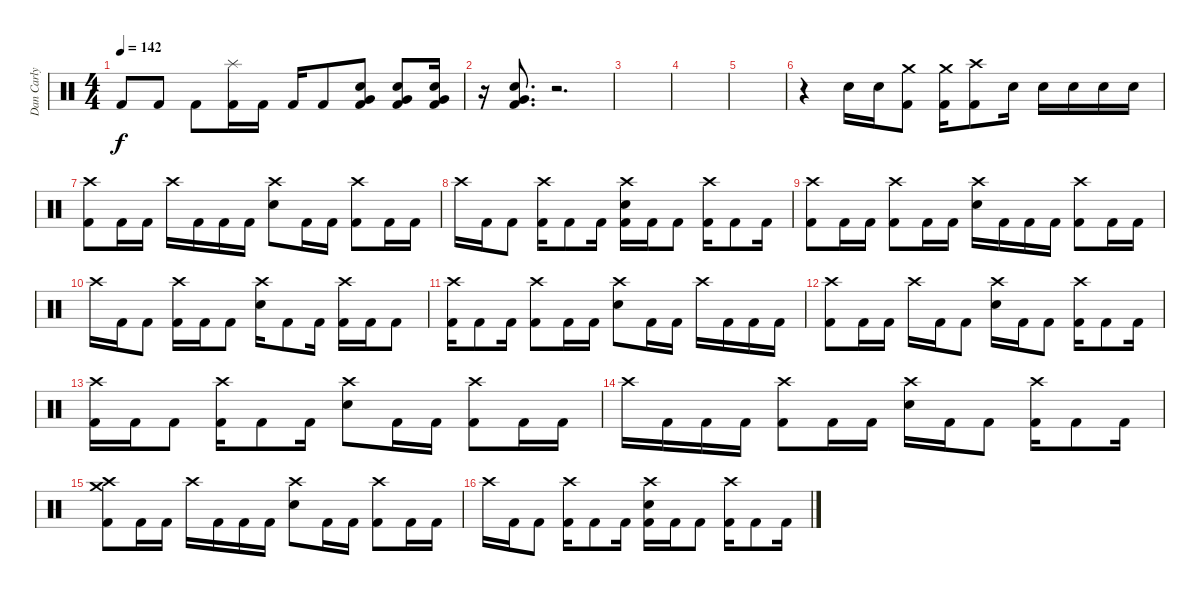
\track ("Dan Carly" "Dan Carly") {instrument percussion}
\staff {score}
\articulation defaults
\ts (4 4)
\tempo 142
\clef neutral
\ks c "Kick (hit) 2".8{dy f} "Kick (hit) 2".8 "Kick (hit) 2".8
("Splash (hit)" "Kick (hit) 2").16 "Kick (hit) 2".16 "Kick (hit) 2".16 "Kick (hit) 2".8 ("Electric Snare (hit)" "Very Low Tom (hit)" "Kick (hit) 2").8 ("Electric Snare (hit)" "Very Low Tom (hit)" "Kick (hit) 2").8 ("Electric Snare (hit)" "Very Low Tom (hit)" "Kick (hit) 2").16 |
r.16 ("Electric Snare (hit)" "Very Low Tom (hit)" "Kick (hit) 2").8{d} r.2{d} |
|
|
|
r.4 "Electric Snare (hit)".16 "Electric Snare (hit)".16 ("Crash medium (hit)" "Kick (hit) 2").8 ("Crash medium (hit)" "Kick (hit) 2").16 ("Crash high (hit)" "Kick (hit) 2").8 "Electric Snare (hit)".16 "Electric Snare (hit)".16 "Electric Snare (hit)".16 "Electric Snare (hit)".16 "Electric Snare (hit)".16 |
("Crash high (hit)" "Kick (hit) 2").8 "Kick (hit) 2".16 "Kick (hit) 2".16 "Crash high (hit)".16 "Kick (hit) 2".16 "Kick (hit) 2".16 "Kick (hit) 2".16 ("Crash high (hit)" "Electric Snare (hit)").8 "Kick (hit) 2".16 "Kick (hit) 2".16 ("Crash high (hit)" "Kick (hit) 2").8 "Kick (hit) 2".16 "Kick (hit) 2".16 |
"Crash high (hit)".16 "Kick (hit) 2".16 "Kick (hit) 2".8 ("Crash high (hit)" "Kick (hit) 2").16 "Kick (hit) 2".8 "Kick (hit) 2".16 ("Crash high (hit)" "Electric Snare (hit)" "Kick (hit) 2").16 "Kick (hit) 2".16 "Kick (hit) 2".8 ("Crash high (hit)" "Kick (hit) 2").16 "Kick (hit) 2".8 "Kick (hit) 2".16 |
("Crash high (hit)" "Kick (hit) 2").8 "Kick (hit) 2".16 "Kick (hit) 2".16 ("Crash high (hit)" "Kick (hit) 2").8 "Kick (hit) 2".16 "Kick (hit) 2".16 ("Crash high (hit)" "Electric Snare (hit)").16 "Kick (hit) 2".16 "Kick (hit) 2".16 "Kick (hit) 2".16 ("Crash high (hit)" "Kick (hit) 2").8 "Kick (hit) 2".16 "Kick (hit) 2".16 |
"Crash high (hit)".16 "Kick (hit) 2".16 "Kick (hit) 2".8 ("Crash high (hit)" "Kick (hit) 2").16 "Kick (hit) 2".16 "Kick (hit) 2".8 ("Crash high (hit)" "Electric Snare (hit)").16 "Kick (hit) 2".8 "Kick (hit) 2".16 ("Crash high (hit)" "Kick (hit) 2").16 "Kick (hit) 2".16 "Kick (hit) 2".8 |
("Crash high (hit)" "Kick (hit) 2").16 "Kick (hit) 2".8 "Kick (hit) 2".16 ("Crash high (hit)" "Kick (hit) 2").8 "Kick (hit) 2".16 "Kick (hit) 2".16 ("Crash high (hit)" "Electric Snare (hit)").8 "Kick (hit) 2".16 "Kick (hit) 2".16 "Crash high (hit)".16 "Kick (hit) 2".16 "Kick (hit) 2".16 "Kick (hit) 2".16 |
("Crash high (hit)" "Kick (hit) 2").8 "Kick (hit) 2".16 "Kick (hit) 2".16 "Crash high (hit)".16 "Kick (hit) 2".16 "Kick (hit) 2".8 ("Crash high (hit)" "Electric Snare (hit)").16 "Kick (hit) 2".16 "Kick (hit) 2".8 ("Crash high (hit)" "Kick (hit) 2").16 "Kick (hit) 2".8 "Kick (hit) 2".16 |
("Crash high (hit)" "Kick (hit) 2").16 "Kick (hit) 2".16 "Kick (hit) 2".8 ("Crash high (hit)" "Kick (hit) 2").16 "Kick (hit) 2".8 "Kick (hit) 2".16 ("Crash high (hit)" "Electric Snare (hit)").8 "Kick (hit) 2".16 "Kick (hit) 2".16 ("Crash high (hit)" "Kick (hit) 2").8 "Kick (hit) 2".16 "Kick (hit) 2".16 |
"Crash high (hit)".16 "Kick (hit) 2".16 "Kick (hit) 2".16 "Kick (hit) 2".16 ("Crash high (hit)" "Kick (hit) 2").8 "Kick (hit) 2".16 "Kick (hit) 2".16 ("Crash high (hit)" "Electric Snare (hit)").16 "Kick (hit) 2".16 "Kick (hit) 2".8 ("Crash high (hit)" "Kick (hit) 2").16 "Kick (hit) 2".8 "Kick (hit) 2".16 |
("Crash high (hit)" "Crash medium (hit)" "Kick (hit) 2").8 "Kick (hit) 2".16 "Kick (hit) 2".16 "Crash high (hit)".16 "Kick (hit) 2".16 "Kick (hit) 2".16 "Kick (hit) 2".16 ("Crash high (hit)" "Electric Snare (hit)").8 "Kick (hit) 2".16 "Kick (hit) 2".16 ("Crash high (hit)" "Kick (hit) 2").8 "Kick (hit) 2".16 "Kick (hit) 2".16 |
"Crash high (hit)".16 "Kick (hit) 2".16 "Kick (hit) 2".8 ("Crash high (hit)" "Kick (hit) 2").16 "Kick (hit) 2".8 "Kick (hit) 2".16 ("Crash high (hit)" "Electric Snare (hit)" "Kick (hit) 2").16 "Kick (hit) 2".16 "Kick (hit) 2".8 ("Crash high (hit)" "Kick (hit) 2").16 "Kick (hit) 2".8 "Kick (hit) 2".16
